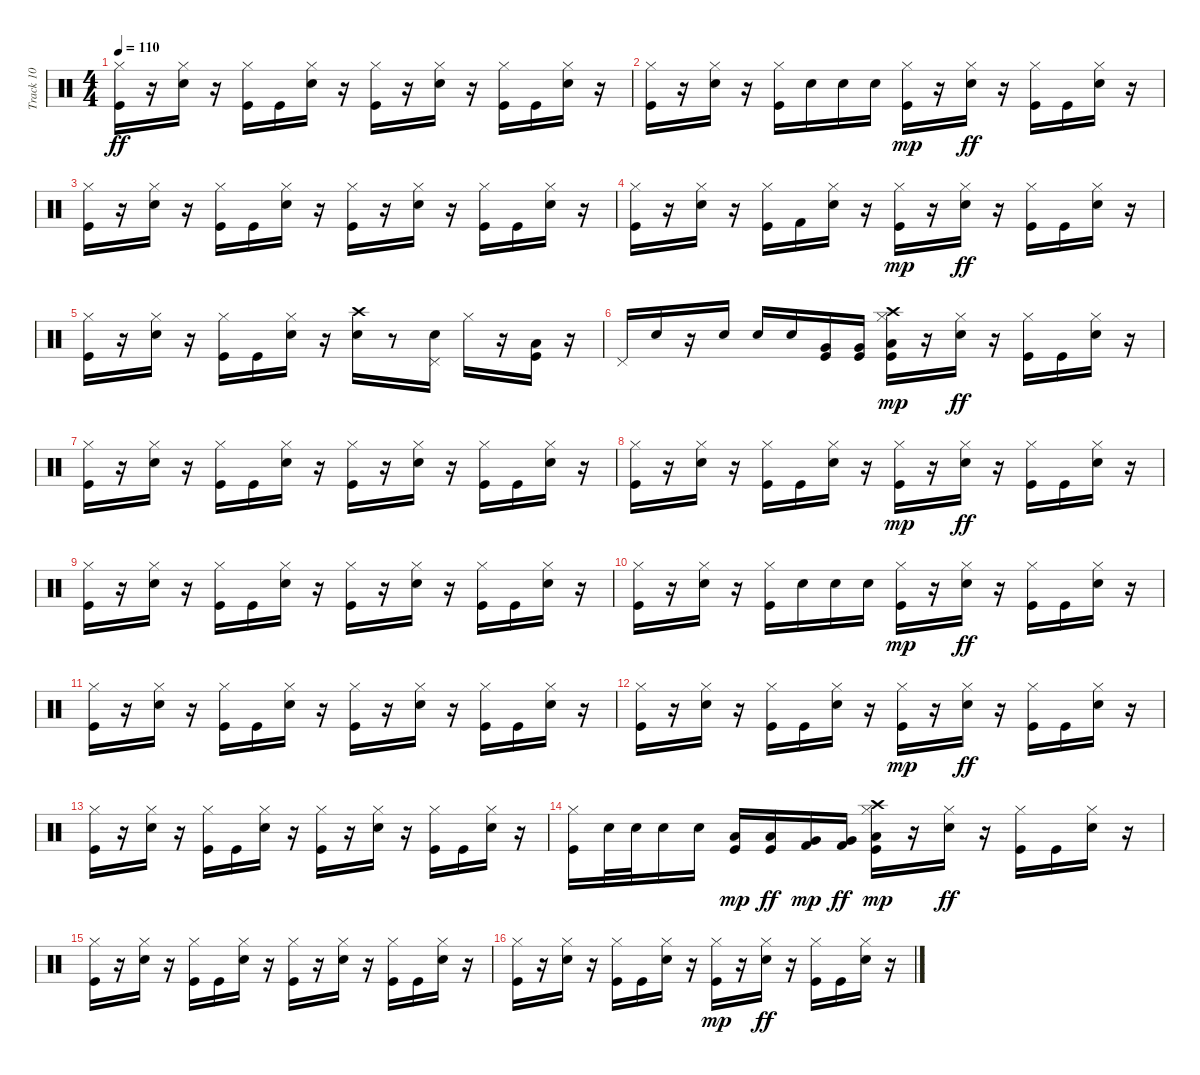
\track ("Track 10" "Track 10") {instrument percussion}
\staff {score}
\articulation defaults
\ts (4 4)
\tempo 110
\clef neutral
\ks c
("Hi-Hat (closed)" "Kick (hit)").16{dy ff} r.16 ("Electric Snare (hit)" "Hi-Hat (closed)").16 r.16 ("Kick (hit)" "Hi-Hat (closed)").16 "Kick (hit)".16 ("Electric Snare (hit)" "Hi-Hat (closed)").16 r.16 ("Kick (hit)" "Hi-Hat (closed)").16 r.16 ("Electric Snare (hit)" "Hi-Hat (closed)").16 r.16 ("Kick (hit)" "Hi-Hat (closed)").16 "Kick (hit)".16 ("Electric Snare (hit)" "Hi-Hat (closed)").16 r.16 |
("Hi-Hat (closed)" "Kick (hit)").16 r.16 ("Electric Snare (hit)" "Hi-Hat (closed)").16 r.16 ("Kick (hit)" "Hi-Hat (closed)").16 "Electric Snare (hit)".16 "Electric Snare (hit)".16 "Electric Snare (hit)".16 ("Kick (hit)" "Hi-Hat (closed)").16{dy mp} r.16 ("Electric Snare (hit)" "Hi-Hat (closed)").16{dy ff} r.16 ("Kick (hit)" "Hi-Hat (closed)").16 "Kick (hit)".16 ("Electric Snare (hit)" "Hi-Hat (closed)").16 r.16 |
("Hi-Hat (closed)" "Kick (hit)").16 r.16 ("Electric Snare (hit)" "Hi-Hat (closed)").16 r.16 ("Kick (hit)" "Hi-Hat (closed)").16 "Kick (hit)".16 ("Electric Snare (hit)" "Hi-Hat (closed)").16 r.16 ("Kick (hit)" "Hi-Hat (closed)").16 r.16 ("Electric Snare (hit)" "Hi-Hat (closed)").16 r.16 ("Kick (hit)" "Hi-Hat (closed)").16 "Kick (hit)".16 ("Electric Snare (hit)" "Hi-Hat (closed)").16 r.16 |
("Kick (hit)" "Hi-Hat (closed)").16 r.16 ("Electric Snare (hit)" "Hi-Hat (closed)").16 r.16 ("Kick (hit)" "Hi-Hat (closed)").16 "Kick (hit) 2".16 ("Electric Snare (hit)" "Hi-Hat (closed)").16 r.16 ("Kick (hit)" "Hi-Hat (closed)").16{dy mp} r.16 ("Electric Snare (hit)" "Hi-Hat (closed)").16{dy ff} r.16 ("Kick (hit)" "Hi-Hat (closed)").16 "Kick (hit)".16 ("Electric Snare (hit)" "Hi-Hat (closed)").16 r.16 |
("Kick (hit)" "Hi-Hat (closed)").16 r.16 ("Electric Snare (hit)" "Hi-Hat (closed)").16 r.16 ("Kick (hit)" "Hi-Hat (closed)").16 "Kick (hit)".16 ("Electric Snare (hit)" "Hi-Hat (closed)").16 r.16 ("Electric Snare (hit)" "Crash high (hit)").16 r.8 ("Electric Snare (hit)" "Pedal Hi-Hat (hit)").16 "Hi-Hat (closed)".16 r.16 ("Low Tom (hit)" "Kick (hit)").16 r.16 |
"Pedal Hi-Hat (hit)".16 "Electric Snare (hit)".16 r.16 "Electric Snare (hit)".16 "Electric Snare (hit)".16 "Electric Snare (hit)".16 ("Very Low Tom (hit)" "Kick (hit)").16 ("Very Low Tom (hit)" "Kick (hit)").16 ("Kick (hit)" "Crash high (hit)" "Low Floor Tom (hit)" "Hi-Hat (closed)").16{dy mp} r.16 ("Electric Snare (hit)" "Hi-Hat (closed)").16{dy ff} r.16 ("Kick (hit)" "Hi-Hat (closed)").16 "Kick (hit)".16 ("Electric Snare (hit)" "Hi-Hat (closed)").16 r.16 |
("Kick (hit)" "Hi-Hat (closed)").16 r.16 ("Electric Snare (hit)" "Hi-Hat (closed)").16 r.16 ("Kick (hit)" "Hi-Hat (closed)").16 "Kick (hit)".16 ("Electric Snare (hit)" "Hi-Hat (closed)").16 r.16 ("Kick (hit)" "Hi-Hat (closed)").16 r.16 ("Electric Snare (hit)" "Hi-Hat (closed)").16 r.16 ("Kick (hit)" "Hi-Hat (closed)").16 "Kick (hit)".16 ("Electric Snare (hit)" "Hi-Hat (closed)").16 r.16 |
("Kick (hit)" "Hi-Hat (closed)").16 r.16 ("Electric Snare (hit)" "Hi-Hat (closed)").16 r.16 ("Kick (hit)" "Hi-Hat (closed)").16 "Kick (hit)".16 ("Electric Snare (hit)" "Hi-Hat (closed)").16 r.16 ("Kick (hit)" "Hi-Hat (closed)").16{dy mp} r.16 ("Electric Snare (hit)" "Hi-Hat (closed)").16{dy ff} r.16 ("Kick (hit)" "Hi-Hat (closed)").16 "Kick (hit)".16 ("Electric Snare (hit)" "Hi-Hat (closed)").16 r.16 |
("Kick (hit)" "Hi-Hat (closed)").16 r.16 ("Electric Snare (hit)" "Hi-Hat (closed)").16 r.16 ("Kick (hit)" "Hi-Hat (closed)").16 "Kick (hit)".16 ("Electric Snare (hit)" "Hi-Hat (closed)").16 r.16 ("Kick (hit)" "Hi-Hat (closed)").16 r.16 ("Electric Snare (hit)" "Hi-Hat (closed)").16 r.16 ("Kick (hit)" "Hi-Hat (closed)").16 "Kick (hit)".16 ("Electric Snare (hit)" "Hi-Hat (closed)").16 r.16 |
("Kick (hit)" "Hi-Hat (closed)").16 r.16 ("Electric Snare (hit)" "Hi-Hat (closed)").16 r.16 ("Kick (hit)" "Hi-Hat (closed)").16 "Electric Snare (hit)".16 "Electric Snare (hit)".16 "Electric Snare (hit)".16 ("Kick (hit)" "Hi-Hat (closed)").16{dy mp} r.16 ("Electric Snare (hit)" "Hi-Hat (closed)").16{dy ff} r.16 ("Kick (hit)" "Hi-Hat (closed)").16 "Kick (hit)".16 ("Electric Snare (hit)" "Hi-Hat (closed)").16 r.16 |
("Hi-Hat (closed)" "Kick (hit)").16 r.16 ("Electric Snare (hit)" "Hi-Hat (closed)").16 r.16 ("Hi-Hat (closed)" "Kick (hit)").16 "Kick (hit)".16 ("Electric Snare (hit)" "Hi-Hat (closed)").16 r.16 ("Kick (hit)" "Hi-Hat (closed)").16 r.16 ("Electric Snare (hit)" "Hi-Hat (closed)").16 r.16 ("Kick (hit)" "Hi-Hat (closed)").16 "Kick (hit)".16 ("Electric Snare (hit)" "Hi-Hat (closed)").16 r.16 |
("Kick (hit)" "Hi-Hat (closed)").16 r.16 ("Electric Snare (hit)" "Hi-Hat (closed)").16 r.16 ("Hi-Hat (closed)" "Kick (hit)").16 "Kick (hit)".16 ("Electric Snare (hit)" "Hi-Hat (closed)").16 r.16 ("Kick (hit)" "Hi-Hat (closed)").16{dy mp} r.16 ("Electric Snare (hit)" "Hi-Hat (closed)").16{dy ff} r.16 ("Kick (hit)" "Hi-Hat (closed)").16 "Kick (hit)".16 ("Electric Snare (hit)" "Hi-Hat (closed)").16 r.16 |
("Kick (hit)" "Hi-Hat (closed)").16 r.16 ("Electric Snare (hit)" "Hi-Hat (closed)").16 r.16 ("Kick (hit)" "Hi-Hat (closed)").16 "Kick (hit)".16 ("Electric Snare (hit)" "Hi-Hat (closed)").16 r.16 ("Kick (hit)" "Hi-Hat (closed)").16 r.16 ("Electric Snare (hit)" "Hi-Hat (closed)").16 r.16 ("Kick (hit)" "Hi-Hat (closed)").16 "Kick (hit)".16 ("Electric Snare (hit)" "Hi-Hat (closed)").16 r.16 |
("Kick (hit)" "Hi-Hat (closed)").16 "Electric Snare (hit)".32 "Electric Snare (hit)".32 "Electric Snare (hit)".16 "Electric Snare (hit)".16 ("Low Tom (hit)" "Kick (hit)").16{dy mp} ("Low Tom (hit)" "Kick (hit)").16{dy ff} ("Very Low Tom (hit)" "Kick (hit) 2").16{dy mp} ("Very Low Tom (hit)" "Kick (hit) 2").16{dy ff} ("Kick (hit)" "Crash high (hit)" "Low Floor Tom (hit)" "Hi-Hat (closed)").16{dy mp} r.16 ("Electric Snare (hit)" "Hi-Hat (closed)").16{dy ff} r.16 ("Kick (hit)" "Hi-Hat (closed)").16 "Kick (hit)".16 ("Electric Snare (hit)" "Hi-Hat (closed)").16 r.16 |
("Kick (hit)" "Hi-Hat (closed)").16 r.16 ("Electric Snare (hit)" "Hi-Hat (closed)").16 r.16 ("Kick (hit)" "Hi-Hat (closed)").16 "Kick (hit)".16 ("Electric Snare (hit)" "Hi-Hat (closed)").16 r.16 ("Kick (hit)" "Hi-Hat (closed)").16 r.16 ("Electric Snare (hit)" "Hi-Hat (closed)").16 r.16 ("Kick (hit)" "Hi-Hat (closed)").16 "Kick (hit)".16 ("Electric Snare (hit)" "Hi-Hat (closed)").16 r.16 |
("Kick (hit)" "Hi-Hat (closed)").16 r.16 ("Electric Snare (hit)" "Hi-Hat (closed)").16 r.16 ("Hi-Hat (closed)" "Kick (hit)").16 "Kick (hit)".16 ("Electric Snare (hit)" "Hi-Hat (closed)").16 r.16 ("Kick (hit)" "Hi-Hat (closed)").16{dy mp} r.16 ("Electric Snare (hit)" "Hi-Hat (closed)").16{dy ff} r.16 ("Kick (hit)" "Hi-Hat (closed)").16 "Kick (hit)".16 ("Electric Snare (hit)" "Hi-Hat (closed)").16 r.16
